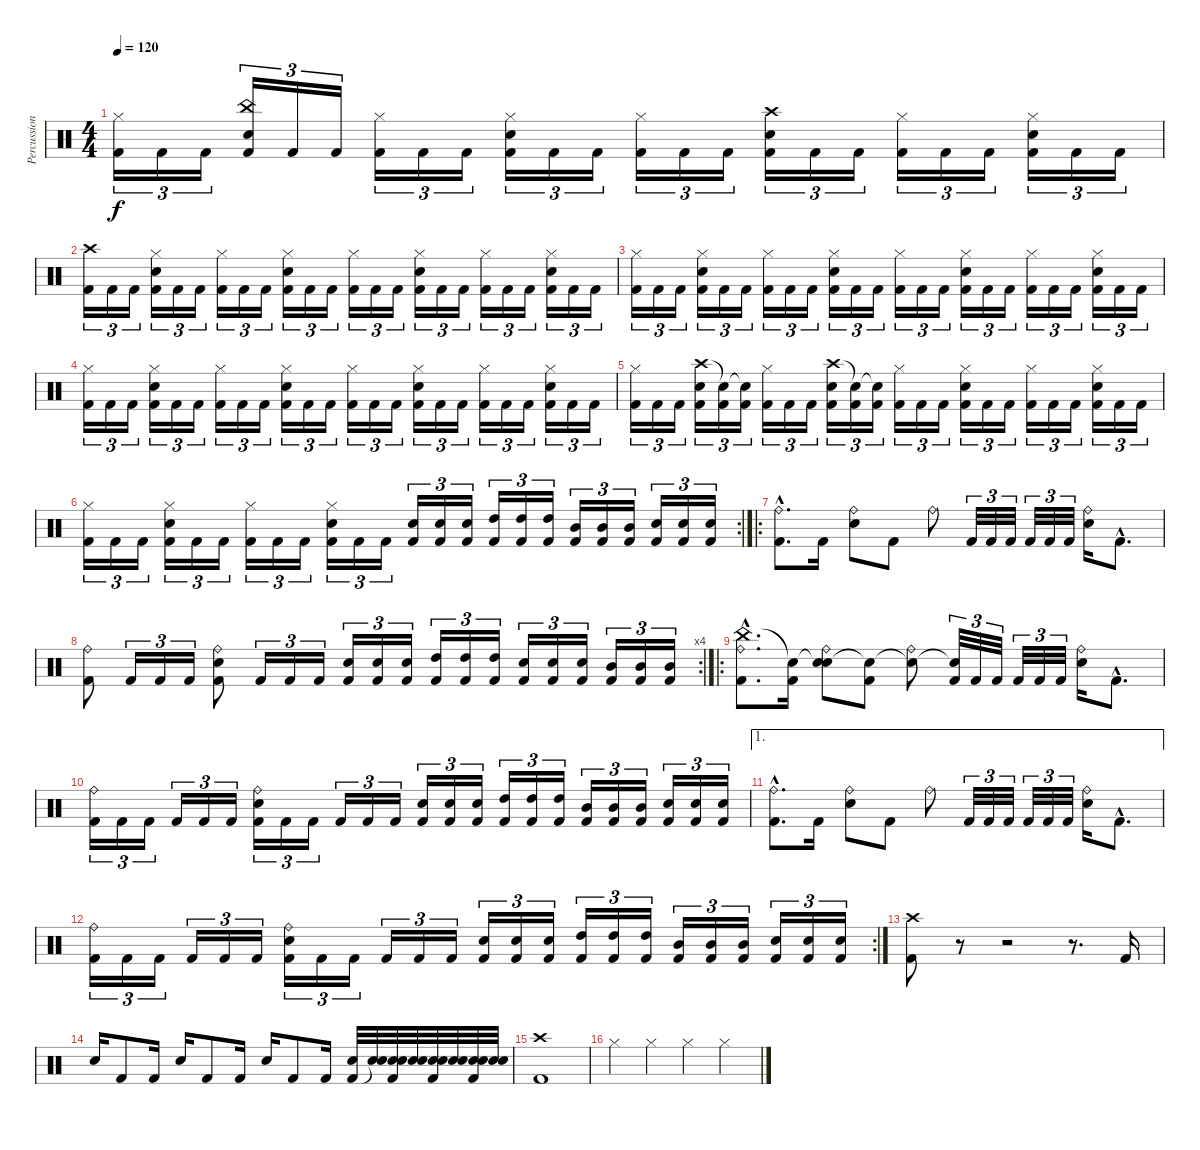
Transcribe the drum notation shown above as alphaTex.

\track ("Percussion" "Percussion") {instrument percussion}
\staff {score}
\articulation defaults
\ts (4 4)
\tempo 120
\clef neutral
\ks c
("Hi-Hat (closed)" "Kick (hit) 2").16{tu (3 2) dy f} "Kick (hit) 2".16{tu (3 2)} "Kick (hit) 2".16{tu (3 2)} ("China (hit)" "Snare (hit) 2" "Kick (hit) 2").16{tu (3 2)} "Kick (hit) 2".16{tu (3 2)} "Kick (hit) 2".16{tu (3 2)} ("Hi-Hat (closed)" "Kick (hit) 2").16{tu (3 2)} "Kick (hit) 2".16{tu (3 2)} "Kick (hit) 2".16{tu (3 2)} ("Hi-Hat (closed)" "Snare (hit) 2" "Kick (hit) 2").16{tu (3 2)} "Kick (hit) 2".16{tu (3 2)} "Kick (hit) 2".16{tu (3 2)} ("Hi-Hat (closed)" "Kick (hit) 2").16{tu (3 2)} "Kick (hit) 2".16{tu (3 2)} "Kick (hit) 2".16{tu (3 2)} ("Crash high (hit)" "Snare (hit) 2" "Kick (hit) 2").16{tu (3 2)} "Kick (hit) 2".16{tu (3 2)} "Kick (hit) 2".16{tu (3 2)} ("Hi-Hat (closed)" "Kick (hit) 2").16{tu (3 2)} "Kick (hit) 2".16{tu (3 2)} "Kick (hit) 2".16{tu (3 2)} ("Hi-Hat (closed)" "Snare (hit) 2" "Kick (hit) 2").16{tu (3 2)} "Kick (hit) 2".16{tu (3 2)} "Kick (hit) 2".16{tu (3 2)} |
("Crash high (hit)" "Kick (hit) 2").16{tu (3 2)} "Kick (hit) 2".16{tu (3 2)} "Kick (hit) 2".16{tu (3 2)} ("Hi-Hat (closed)" "Snare (hit) 2" "Kick (hit) 2").16{tu (3 2)} "Kick (hit) 2".16{tu (3 2)} "Kick (hit) 2".16{tu (3 2)} ("Hi-Hat (closed)" "Kick (hit) 2").16{tu (3 2)} "Kick (hit) 2".16{tu (3 2)} "Kick (hit) 2".16{tu (3 2)} ("Hi-Hat (closed)" "Snare (hit) 2" "Kick (hit) 2").16{tu (3 2)} "Kick (hit) 2".16{tu (3 2)} "Kick (hit) 2".16{tu (3 2)} ("Hi-Hat (closed)" "Kick (hit) 2").16{tu (3 2)} "Kick (hit) 2".16{tu (3 2)} "Kick (hit) 2".16{tu (3 2)} ("Hi-Hat (closed)" "Snare (hit) 2" "Kick (hit) 2").16{tu (3 2)} "Kick (hit) 2".16{tu (3 2)} "Kick (hit) 2".16{tu (3 2)} ("Hi-Hat (closed)" "Kick (hit) 2").16{tu (3 2)} "Kick (hit) 2".16{tu (3 2)} "Kick (hit) 2".16{tu (3 2)} ("Hi-Hat (closed)" "Snare (hit) 2" "Kick (hit) 2").16{tu (3 2)} "Kick (hit) 2".16{tu (3 2)} "Kick (hit) 2".16{tu (3 2)} |
("Hi-Hat (closed)" "Kick (hit) 2").16{tu (3 2)} "Kick (hit) 2".16{tu (3 2)} "Kick (hit) 2".16{tu (3 2)} ("Hi-Hat (closed)" "Snare (hit) 2" "Kick (hit) 2").16{tu (3 2)} "Kick (hit) 2".16{tu (3 2)} "Kick (hit) 2".16{tu (3 2)} ("Hi-Hat (closed)" "Kick (hit) 2").16{tu (3 2)} "Kick (hit) 2".16{tu (3 2)} "Kick (hit) 2".16{tu (3 2)} ("Hi-Hat (closed)" "Snare (hit) 2" "Kick (hit) 2").16{tu (3 2)} "Kick (hit) 2".16{tu (3 2)} "Kick (hit) 2".16{tu (3 2)} ("Hi-Hat (closed)" "Kick (hit) 2").16{tu (3 2)} "Kick (hit) 2".16{tu (3 2)} "Kick (hit) 2".16{tu (3 2)} ("Hi-Hat (closed)" "Snare (hit) 2" "Kick (hit) 2").16{tu (3 2)} "Kick (hit) 2".16{tu (3 2)} "Kick (hit) 2".16{tu (3 2)} ("Hi-Hat (closed)" "Kick (hit) 2").16{tu (3 2)} "Kick (hit) 2".16{tu (3 2)} "Kick (hit) 2".16{tu (3 2)} ("Hi-Hat (closed)" "Snare (hit) 2" "Kick (hit) 2").16{tu (3 2)} "Kick (hit) 2".16{tu (3 2)} "Kick (hit) 2".16{tu (3 2)} |
("Hi-Hat (closed)" "Kick (hit) 2").16{tu (3 2)} "Kick (hit) 2".16{tu (3 2)} "Kick (hit) 2".16{tu (3 2)} ("Hi-Hat (closed)" "Snare (hit) 2" "Kick (hit) 2").16{tu (3 2)} "Kick (hit) 2".16{tu (3 2)} "Kick (hit) 2".16{tu (3 2)} ("Hi-Hat (closed)" "Kick (hit) 2").16{tu (3 2)} "Kick (hit) 2".16{tu (3 2)} "Kick (hit) 2".16{tu (3 2)} ("Hi-Hat (closed)" "Snare (hit) 2" "Kick (hit) 2").16{tu (3 2)} "Kick (hit) 2".16{tu (3 2)} "Kick (hit) 2".16{tu (3 2)} ("Hi-Hat (closed)" "Kick (hit) 2").16{tu (3 2)} "Kick (hit) 2".16{tu (3 2)} "Kick (hit) 2".16{tu (3 2)} ("Hi-Hat (closed)" "Snare (hit) 2" "Kick (hit) 2").16{tu (3 2)} "Kick (hit) 2".16{tu (3 2)} "Kick (hit) 2".16{tu (3 2)} ("Hi-Hat (closed)" "Kick (hit) 2").16{tu (3 2)} "Kick (hit) 2".16{tu (3 2)} "Kick (hit) 2".16{tu (3 2)} ("Hi-Hat (closed)" "Snare (hit) 2" "Kick (hit) 2").16{tu (3 2)} "Kick (hit) 2".16{tu (3 2)} "Kick (hit) 2".16{tu (3 2)} |
("Hi-Hat (closed)" "Kick (hit) 2").16{tu (3 2)} "Kick (hit) 2".16{tu (3 2)} "Kick (hit) 2".16{tu (3 2)} ("Crash high (hit)" "Snare (hit) 2" "Kick (hit) 2").16{tu (3 2)} ("Snare (hit)"{t} "Kick (hit) 2").16{tu (3 2)} ("Snare (hit)"{t} "Kick (hit) 2").16{tu (3 2)} ("Hi-Hat (closed)" "Kick (hit) 2").16{tu (3 2)} "Kick (hit) 2".16{tu (3 2)} "Kick (hit) 2".16{tu (3 2)} ("Crash high (hit)" "Snare (hit) 2" "Kick (hit) 2").16{tu (3 2)} ("Snare (hit)"{t} "Kick (hit) 2").16{tu (3 2)} ("Snare (hit)"{t} "Kick (hit) 2").16{tu (3 2)} ("Hi-Hat (closed)" "Kick (hit) 2").16{tu (3 2)} "Kick (hit) 2".16{tu (3 2)} "Kick (hit) 2".16{tu (3 2)} ("Hi-Hat (closed)" "Snare (hit) 2" "Kick (hit) 2").16{tu (3 2)} "Kick (hit) 2".16{tu (3 2)} "Kick (hit) 2".16{tu (3 2)} ("Hi-Hat (closed)" "Kick (hit) 2").16{tu (3 2)} "Kick (hit) 2".16{tu (3 2)} "Kick (hit) 2".16{tu (3 2)} ("Hi-Hat (closed)" "Snare (hit) 2" "Kick (hit) 2").16{tu (3 2)} "Kick (hit) 2".16{tu (3 2)} "Kick (hit) 2".16{tu (3 2)} |
\rc 2
("Hi-Hat (closed)" "Kick (hit) 2").16{tu (3 2)} "Kick (hit) 2".16{tu (3 2)} "Kick (hit) 2".16{tu (3 2)} ("Hi-Hat (closed)" "Snare (hit) 2" "Kick (hit) 2").16{tu (3 2)} "Kick (hit) 2".16{tu (3 2)} "Kick (hit) 2".16{tu (3 2)} ("Hi-Hat (closed)" "Kick (hit) 2").16{tu (3 2)} "Kick (hit) 2".16{tu (3 2)} "Kick (hit) 2".16{tu (3 2)} ("Hi-Hat (closed)" "Snare (hit) 2" "Kick (hit) 2").16{tu (3 2)} "Kick (hit) 2".16{tu (3 2)} "Kick (hit) 2".16{tu (3 2)} ("Snare (hit) 2" "Kick (hit) 2").16{tu (3 2)} ("Snare (hit) 2" "Kick (hit) 2").16{tu (3 2)} ("Snare (hit) 2" "Kick (hit) 2").16{tu (3 2)} ("High Tom (hit)" "Kick (hit) 2").16{tu (3 2)} ("High Tom (hit)" "Kick (hit) 2").16{tu (3 2)} ("High Tom (hit)" "Kick (hit) 2").16{tu (3 2)} ("Mid Tom (hit)" "Kick (hit) 2").16{tu (3 2)} ("Mid Tom (hit)" "Kick (hit) 2").16{tu (3 2)} ("Mid Tom (hit)" "Kick (hit) 2").16{tu (3 2)} ("Snare (hit) 2" "Kick (hit) 2").16{tu (3 2)} ("Snare (hit) 2" "Kick (hit) 2").16{tu (3 2)} ("Snare (hit) 2" "Kick (hit) 2").16{tu (3 2)} |
\ro
("Ride (bell)"{hac} "Kick (hit) 2"{hac}).8{d} "Kick (hit) 2".16 ("Ride (bell)" "Snare (hit) 2").8 "Kick (hit) 2".8 "Ride (bell)".8 "Kick (hit) 2".32{tu (3 2)} "Kick (hit) 2".32{tu (3 2)} "Kick (hit) 2".32{tu (3 2)} "Kick (hit) 2".32{tu (3 2)} "Kick (hit) 2".32{tu (3 2)} "Kick (hit) 2".32{tu (3 2)} ("Ride (bell)" "Snare (hit) 2").16 "Kick (hit) 2"{hac}.8{d} |
\rc 4
("Ride (bell)" "Kick (hit) 2").8 "Kick (hit) 2".16{tu (3 2)} "Kick (hit) 2".16{tu (3 2)} "Kick (hit) 2".16{tu (3 2)} ("Ride (bell)" "Snare (hit) 2" "Kick (hit) 2").8 "Kick (hit) 2".16{tu (3 2)} "Kick (hit) 2".16{tu (3 2)} "Kick (hit) 2".16{tu (3 2)} ("Snare (hit) 2" "Kick (hit) 2").16{tu (3 2)} ("Snare (hit) 2" "Kick (hit) 2").16{tu (3 2)} ("Snare (hit) 2" "Kick (hit) 2").16{tu (3 2)} ("High Tom (hit)" "Kick (hit) 2").16{tu (3 2)} ("High Tom (hit)" "Kick (hit) 2").16{tu (3 2)} ("High Tom (hit)" "Kick (hit) 2").16{tu (3 2)} ("Snare (hit) 2" "Kick (hit) 2").16{tu (3 2)} ("Snare (hit) 2" "Kick (hit) 2").16{tu (3 2)} ("Snare (hit) 2" "Kick (hit) 2").16{tu (3 2)} ("Mid Tom (hit)" "Kick (hit) 2").16{tu (3 2)} ("Mid Tom (hit)" "Kick (hit) 2").16{tu (3 2)} ("Mid Tom (hit)" "Kick (hit) 2").16{tu (3 2)} |
\ro
("China (hit)"{hac} "Ride (bell)"{hac} "Kick (hit) 2"{hac}).8{d} ("Snare (hit)"{t} "Kick (hit) 2").16 ("Snare (hit)"{t} "Ride (bell)" "Snare (hit) 2").8 ("Snare (hit)"{t} "Kick (hit) 2").8 ("Snare (hit)"{t} "Ride (bell)").8 ("Snare (hit)"{t} "Kick (hit) 2").32{tu (3 2)} "Kick (hit) 2".32{tu (3 2)} "Kick (hit) 2".32{tu (3 2)} "Kick (hit) 2".32{tu (3 2)} "Kick (hit) 2".32{tu (3 2)} "Kick (hit) 2".32{tu (3 2)} ("Ride (bell)" "Snare (hit) 2").16 "Kick (hit) 2"{hac}.8{d} |
("Ride (bell)" "Kick (hit) 2").16{tu (3 2)} "Kick (hit) 2".16{tu (3 2)} "Kick (hit) 2".16{tu (3 2)} "Kick (hit) 2".16{tu (3 2)} "Kick (hit) 2".16{tu (3 2)} "Kick (hit) 2".16{tu (3 2)} ("Ride (bell)" "Snare (hit) 2" "Kick (hit) 2").16{tu (3 2)} "Kick (hit) 2".16{tu (3 2)} "Kick (hit) 2".16{tu (3 2)} "Kick (hit) 2".16{tu (3 2)} "Kick (hit) 2".16{tu (3 2)} "Kick (hit) 2".16{tu (3 2)} ("Snare (hit) 2" "Kick (hit) 2").16{tu (3 2)} ("Snare (hit) 2" "Kick (hit) 2").16{tu (3 2)} ("Snare (hit) 2" "Kick (hit) 2").16{tu (3 2)} ("High Tom (hit)" "Kick (hit) 2").16{tu (3 2)} ("High Tom (hit)" "Kick (hit) 2").16{tu (3 2)} ("High Tom (hit)" "Kick (hit) 2").16{tu (3 2)} ("Mid Tom (hit)" "Kick (hit) 2").16{tu (3 2)} ("Mid Tom (hit)" "Kick (hit) 2").16{tu (3 2)} ("Mid Tom (hit)" "Kick (hit) 2").16{tu (3 2)} ("Snare (hit) 2" "Kick (hit) 2").16{tu (3 2)} ("Snare (hit) 2" "Kick (hit) 2").16{tu (3 2)} ("Snare (hit) 2" "Kick (hit) 2").16{tu (3 2)} |
\ae 1
("Ride (bell)"{hac} "Kick (hit) 2"{hac}).8{d} "Kick (hit) 2".16 ("Ride (bell)" "Snare (hit) 2").8 "Kick (hit) 2".8 "Ride (bell)".8 "Kick (hit) 2".32{tu (3 2)} "Kick (hit) 2".32{tu (3 2)} "Kick (hit) 2".32{tu (3 2)} "Kick (hit) 2".32{tu (3 2)} "Kick (hit) 2".32{tu (3 2)} "Kick (hit) 2".32{tu (3 2)} ("Ride (bell)" "Snare (hit) 2").16 "Kick (hit) 2"{hac}.8{d} |
\rc 2
("Ride (bell)" "Kick (hit) 2").16{tu (3 2)} "Kick (hit) 2".16{tu (3 2)} "Kick (hit) 2".16{tu (3 2)} "Kick (hit) 2".16{tu (3 2)} "Kick (hit) 2".16{tu (3 2)} "Kick (hit) 2".16{tu (3 2)} ("Ride (bell)" "Snare (hit) 2" "Kick (hit) 2").16{tu (3 2)} "Kick (hit) 2".16{tu (3 2)} "Kick (hit) 2".16{tu (3 2)} "Kick (hit) 2".16{tu (3 2)} "Kick (hit) 2".16{tu (3 2)} "Kick (hit) 2".16{tu (3 2)} ("Snare (hit) 2" "Kick (hit) 2").16{tu (3 2)} ("Snare (hit) 2" "Kick (hit) 2").16{tu (3 2)} ("Snare (hit) 2" "Kick (hit) 2").16{tu (3 2)} ("High Tom (hit)" "Kick (hit) 2").16{tu (3 2)} ("High Tom (hit)" "Kick (hit) 2").16{tu (3 2)} ("High Tom (hit)" "Kick (hit) 2").16{tu (3 2)} ("Mid Tom (hit)" "Kick (hit) 2").16{tu (3 2)} ("Mid Tom (hit)" "Kick (hit) 2").16{tu (3 2)} ("Mid Tom (hit)" "Kick (hit) 2").16{tu (3 2)} ("Snare (hit) 2" "Kick (hit) 2").16{tu (3 2)} ("Snare (hit) 2" "Kick (hit) 2").16{tu (3 2)} ("Snare (hit) 2" "Kick (hit) 2").16{tu (3 2)} |
("Crash high (hit)" "Kick (hit) 2").8 r.8 r.2 r.8{d} "Kick (hit) 2".16 |
"Snare (hit) 2".16 "Kick (hit) 2".8 "Kick (hit) 2".16 "Snare (hit) 2".16 "Kick (hit) 2".8 "Kick (hit) 2".16 "Snare (hit) 2".16 "Kick (hit) 2".8 "Kick (hit) 2".16 ("Snare (hit) 2" "Kick (hit) 2").32 ("Snare (hit) 2" "Snare (hit) 2"{t}).32 ("Snare (hit)"{t} "Snare (hit) 2" "Kick (hit) 2").32 ("Snare (hit) 2" "Snare (hit) 2"{t}).32 ("Snare (hit)"{t} "Snare (hit) 2" "Kick (hit) 2").32 ("Snare (hit) 2" "Snare (hit) 2"{t}).32 ("Snare (hit)"{t} "Snare (hit) 2" "Kick (hit) 2").32 ("Snare (hit) 2" "Snare (hit) 2"{t}).32 |
("Crash high (hit)" "Kick (hit) 2").1 |
"Hi-Hat (closed)".4 "Hi-Hat (closed)".4 "Hi-Hat (closed)".4 "Hi-Hat (closed)".4
